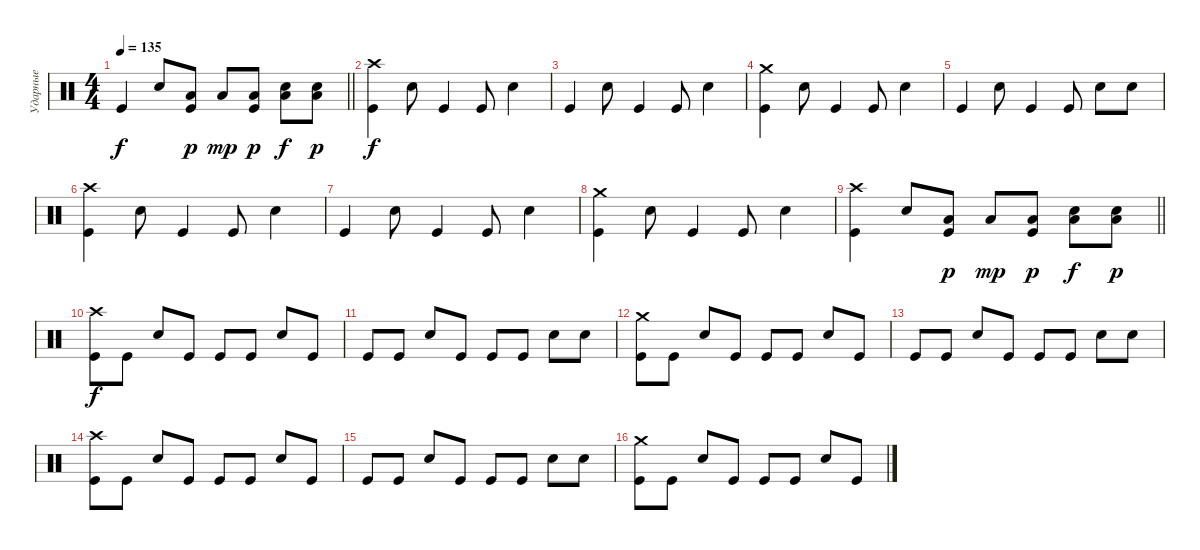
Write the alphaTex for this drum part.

\track ("Ударные" "Ударные") {instrument percussion}
\staff
\articulation defaults
\ts (4 4)
\tempo 135
\clef neutral
\barLineRight lightlight
\ks c "Kick (hit)".4{dy f} "Snare (hit) 2".8
("Low Floor Tom (hit)" "Kick (hit)").8{dy p} "Low Floor Tom (hit)".8{dy mp} ("Low Floor Tom (hit)" "Kick (hit)").8{dy p} ("Low Floor Tom (hit)" "Snare (hit) 2").8{dy f} ("Low Floor Tom (hit)" "Snare (hit) 2").8{dy p} |
("Crash high (hit)" "Kick (hit)").4{dy f} "Snare (hit) 2".8 "Kick (hit)".4 "Kick (hit)".8 "Snare (hit) 2".4 |
"Kick (hit)".4 "Snare (hit) 2".8 "Kick (hit)".4 "Kick (hit)".8 "Snare (hit) 2".4 |
("Crash medium (hit)" "Kick (hit)").4 "Snare (hit) 2".8 "Kick (hit)".4 "Kick (hit)".8 "Snare (hit) 2".4 |
"Kick (hit)".4 "Snare (hit) 2".8 "Kick (hit)".4 "Kick (hit)".8 "Snare (hit) 2".8 "Snare (hit) 2".8 |
("Crash high (hit)" "Kick (hit)").4 "Snare (hit) 2".8 "Kick (hit)".4 "Kick (hit)".8 "Snare (hit) 2".4 |
"Kick (hit)".4 "Snare (hit) 2".8 "Kick (hit)".4 "Kick (hit)".8 "Snare (hit) 2".4 |
("Crash medium (hit)" "Kick (hit)").4 "Snare (hit) 2".8 "Kick (hit)".4 "Kick (hit)".8 "Snare (hit) 2".4 |
\barLineRight lightlight
("Crash high (hit)" "Kick (hit)").4 "Snare (hit) 2".8 ("Low Floor Tom (hit)" "Kick (hit)").8{dy p} "Low Floor Tom (hit)".8{dy mp} ("Low Floor Tom (hit)" "Kick (hit)").8{dy p} ("Low Floor Tom (hit)" "Snare (hit) 2").8{dy f} ("Low Floor Tom (hit)" "Snare (hit) 2").8{dy p} |
("Crash high (hit)" "Kick (hit)").8{dy f} "Kick (hit)".8 "Snare (hit) 2".8 "Kick (hit)".8 "Kick (hit)".8 "Kick (hit)".8 "Snare (hit) 2".8 "Kick (hit)".8 |
"Kick (hit)".8 "Kick (hit)".8 "Snare (hit) 2".8 "Kick (hit)".8 "Kick (hit)".8 "Kick (hit)".8 "Snare (hit) 2".8 "Snare (hit) 2".8 |
("Crash medium (hit)" "Kick (hit)").8 "Kick (hit)".8 "Snare (hit) 2".8 "Kick (hit)".8 "Kick (hit)".8 "Kick (hit)".8 "Snare (hit) 2".8 "Kick (hit)".8 |
"Kick (hit)".8 "Kick (hit)".8 "Snare (hit) 2".8 "Kick (hit)".8 "Kick (hit)".8 "Kick (hit)".8 "Snare (hit) 2".8 "Snare (hit) 2".8 |
("Crash high (hit)" "Kick (hit)").8 "Kick (hit)".8 "Snare (hit) 2".8 "Kick (hit)".8 "Kick (hit)".8 "Kick (hit)".8 "Snare (hit) 2".8 "Kick (hit)".8 |
"Kick (hit)".8 "Kick (hit)".8 "Snare (hit) 2".8 "Kick (hit)".8 "Kick (hit)".8 "Kick (hit)".8 "Snare (hit) 2".8 "Snare (hit) 2".8 |
("Crash medium (hit)" "Kick (hit)").8 "Kick (hit)".8 "Snare (hit) 2".8 "Kick (hit)".8 "Kick (hit)".8 "Kick (hit)".8 "Snare (hit) 2".8 "Kick (hit)".8
